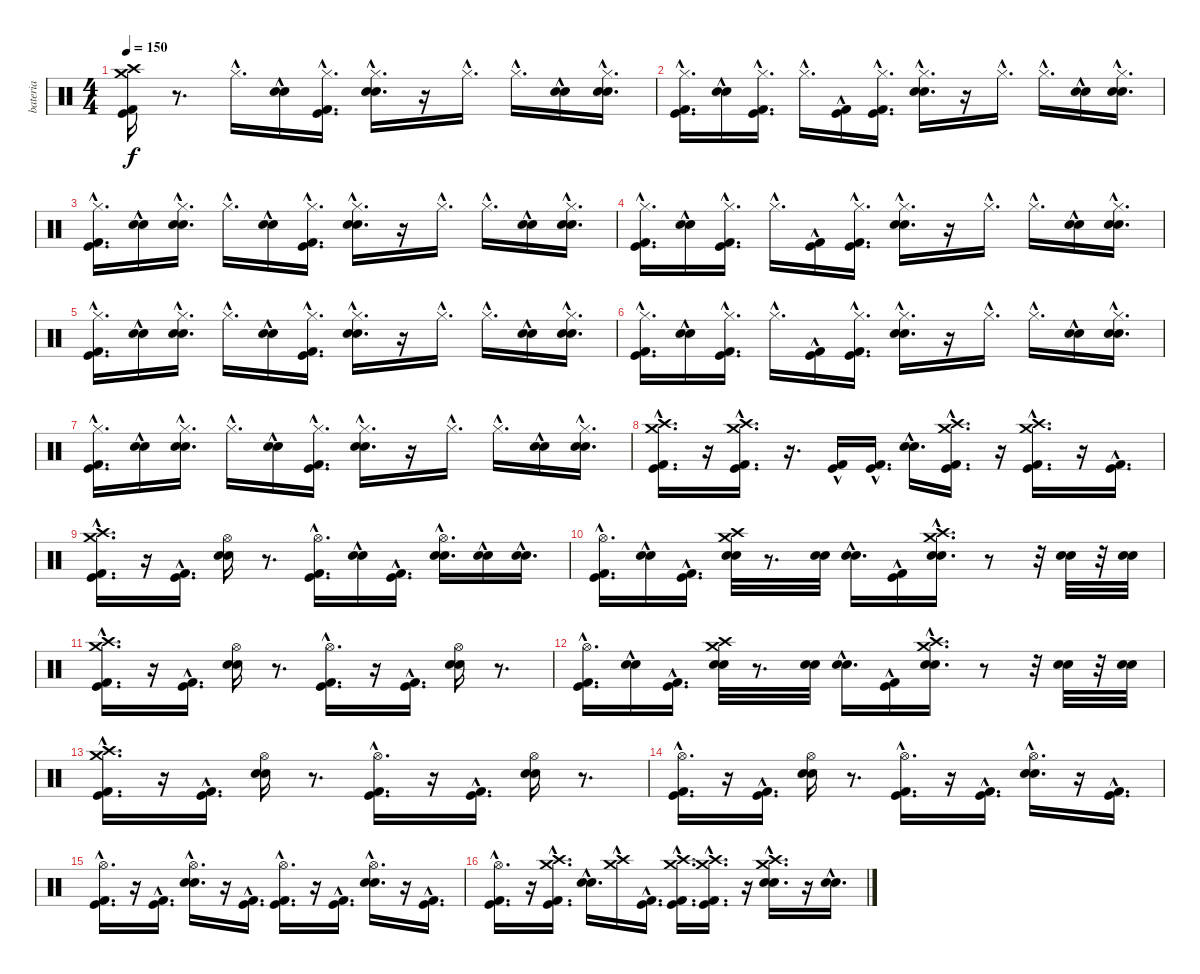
\track ("bateria" "bateria") {instrument percussion}
\staff {score}
\articulation defaults
\ts (4 4)
\tempo 150
\clef neutral
\ks c
("Crash high (hit)" "Crash medium (hit)" "Kick (hit) 2" "Kick (hit)").16{dy f} r.8{d} "Hi-Hat (closed)"{hac}.16{d} ("Electric Snare (hit)"{hac} "Snare (hit) 2"{hac}).16 ("Hi-Hat (closed)"{hac} "Kick (hit) 2"{hac} "Kick (hit)"{hac}).16{d} ("Hi-Hat (closed)"{hac} "Electric Snare (hit)"{hac} "Snare (hit) 2"{hac}).16{d} r.16 "Hi-Hat (closed)"{hac}.16{d} "Hi-Hat (closed)"{hac}.16{d} ("Electric Snare (hit)"{hac} "Snare (hit) 2"{hac}).16 ("Hi-Hat (closed)"{hac} "Electric Snare (hit)"{hac} "Snare (hit) 2"{hac}).16{d} |
("Hi-Hat (closed)"{hac} "Kick (hit) 2"{hac} "Kick (hit)"{hac}).16{d} ("Electric Snare (hit)"{hac} "Snare (hit) 2"{hac}).16 ("Hi-Hat (closed)"{hac} "Kick (hit) 2"{hac} "Kick (hit)"{hac}).16{d} "Hi-Hat (closed)"{hac}.16{d} ("Kick (hit)"{hac} "Kick (hit) 2"{hac}).16 ("Kick (hit) 2"{hac} "Kick (hit)"{hac} "Hi-Hat (closed)"{hac}).16{d} ("Hi-Hat (closed)"{hac} "Electric Snare (hit)"{hac} "Snare (hit) 2"{hac}).16{d} r.16 "Hi-Hat (closed)"{hac}.16{d} "Hi-Hat (closed)"{hac}.16{d} ("Electric Snare (hit)"{hac} "Snare (hit) 2"{hac}).16 ("Hi-Hat (closed)"{hac} "Electric Snare (hit)"{hac} "Snare (hit) 2"{hac}).16{d} |
("Hi-Hat (closed)"{hac} "Kick (hit) 2"{hac} "Kick (hit)"{hac}).16{d} ("Electric Snare (hit)"{hac} "Snare (hit) 2"{hac}).16 ("Hi-Hat (closed)"{hac} "Electric Snare (hit)"{hac} "Snare (hit) 2"{hac}).16{d} "Hi-Hat (closed)"{hac}.16{d} ("Electric Snare (hit)"{hac} "Snare (hit) 2"{hac}).16 ("Kick (hit)"{hac} "Kick (hit) 2"{hac} "Hi-Hat (closed)"{hac}).16{d} ("Electric Snare (hit)"{hac} "Snare (hit) 2"{hac} "Hi-Hat (closed)"{hac}).16{d} r.16 "Hi-Hat (closed)"{hac}.16{d} "Hi-Hat (closed)"{hac}.16{d} ("Electric Snare (hit)"{hac} "Snare (hit) 2"{hac}).16 ("Electric Snare (hit)"{hac} "Snare (hit) 2"{hac} "Hi-Hat (closed)"{hac}).16{d} |
("Kick (hit) 2"{hac} "Kick (hit)"{hac} "Hi-Hat (closed)"{hac}).16{d} ("Electric Snare (hit)"{hac} "Snare (hit) 2"{hac}).16 ("Kick (hit) 2"{hac} "Kick (hit)"{hac} "Hi-Hat (closed)"{hac}).16{d} "Hi-Hat (closed)"{hac}.16{d} ("Kick (hit) 2"{hac} "Kick (hit)"{hac}).16 ("Kick (hit) 2"{hac} "Kick (hit)"{hac} "Hi-Hat (closed)"{hac}).16{d} ("Electric Snare (hit)"{hac} "Snare (hit) 2"{hac} "Hi-Hat (closed)"{hac}).16{d} r.16 "Hi-Hat (closed)"{hac}.16{d} "Hi-Hat (closed)"{hac}.16{d} ("Electric Snare (hit)"{hac} "Snare (hit) 2"{hac}).16 ("Snare (hit) 2"{hac} "Electric Snare (hit)"{hac} "Hi-Hat (closed)"{hac}).16{d} |
("Hi-Hat (closed)"{hac} "Kick (hit) 2"{hac} "Kick (hit)"{hac}).16{d} ("Electric Snare (hit)"{hac} "Snare (hit) 2"{hac}).16 ("Hi-Hat (closed)"{hac} "Electric Snare (hit)"{hac} "Snare (hit) 2"{hac}).16{d} "Hi-Hat (closed)"{hac}.16{d} ("Electric Snare (hit)"{hac} "Snare (hit) 2"{hac}).16 ("Kick (hit)"{hac} "Kick (hit) 2"{hac} "Hi-Hat (closed)"{hac}).16{d} ("Electric Snare (hit)"{hac} "Snare (hit) 2"{hac} "Hi-Hat (closed)"{hac}).16{d} r.16 "Hi-Hat (closed)"{hac}.16{d} "Hi-Hat (closed)"{hac}.16{d} ("Electric Snare (hit)"{hac} "Snare (hit) 2"{hac}).16 ("Electric Snare (hit)"{hac} "Snare (hit) 2"{hac} "Hi-Hat (closed)"{hac}).16{d} |
("Kick (hit) 2"{hac} "Kick (hit)"{hac} "Hi-Hat (closed)"{hac}).16{d} ("Electric Snare (hit)"{hac} "Snare (hit) 2"{hac}).16 ("Kick (hit) 2"{hac} "Kick (hit)"{hac} "Hi-Hat (closed)"{hac}).16{d} "Hi-Hat (closed)"{hac}.16{d} ("Kick (hit) 2"{hac} "Kick (hit)"{hac}).16 ("Kick (hit) 2"{hac} "Kick (hit)"{hac} "Hi-Hat (closed)"{hac}).16{d} ("Electric Snare (hit)"{hac} "Snare (hit) 2"{hac} "Hi-Hat (closed)"{hac}).16{d} r.16 "Hi-Hat (closed)"{hac}.16{d} "Hi-Hat (closed)"{hac}.16{d} ("Electric Snare (hit)"{hac} "Snare (hit) 2"{hac}).16 ("Snare (hit) 2"{hac} "Electric Snare (hit)"{hac} "Hi-Hat (closed)"{hac}).16{d} |
("Hi-Hat (closed)"{hac} "Kick (hit) 2"{hac} "Kick (hit)"{hac}).16{d} ("Electric Snare (hit)"{hac} "Snare (hit) 2"{hac}).16 ("Hi-Hat (closed)"{hac} "Electric Snare (hit)"{hac} "Snare (hit) 2"{hac}).16{d} "Hi-Hat (closed)"{hac}.16{d} ("Electric Snare (hit)"{hac} "Snare (hit) 2"{hac}).16 ("Kick (hit)"{hac} "Kick (hit) 2"{hac} "Hi-Hat (closed)"{hac}).16{d} ("Electric Snare (hit)"{hac} "Snare (hit) 2"{hac} "Hi-Hat (closed)"{hac}).16{d} r.16 "Hi-Hat (closed)"{hac}.16{d} "Hi-Hat (closed)"{hac}.16{d} ("Electric Snare (hit)"{hac} "Snare (hit) 2"{hac}).16 ("Electric Snare (hit)"{hac} "Snare (hit) 2"{hac} "Hi-Hat (closed)"{hac}).16{d} |
("Crash high (hit)"{hac} "Crash medium (hit)"{hac} "Kick (hit) 2"{hac} "Kick (hit)"{hac}).16{d} r.16 ("Crash high (hit)"{hac} "Crash medium (hit)"{hac} "Kick (hit) 2"{hac} "Kick (hit)"{hac}).16{d} r.16{d} ("Kick (hit) 2"{hac} "Kick (hit)"{hac}).16 ("Kick (hit) 2"{hac} "Kick (hit)"{hac}).16{d} ("Electric Snare (hit)"{hac} "Snare (hit) 2"{hac}).16{d} ("Crash high (hit)"{hac} "Crash medium (hit)"{hac} "Kick (hit) 2"{hac} "Kick (hit)"{hac}).16{d} r.16 ("Kick (hit) 2"{hac} "Kick (hit)"{hac} "Crash high (hit)"{hac} "Crash medium (hit)"{hac}).16{d} r.16 ("Kick (hit) 2"{hac} "Kick (hit)"{hac}).16{d} |
("Crash high (hit)"{hac} "Crash medium (hit)"{hac} "Kick (hit) 2"{hac} "Kick (hit)"{hac}).16{d} r.16 ("Kick (hit) 2"{hac} "Kick (hit)"{hac}).16{d} ("Hi-Hat (open)" "Electric Snare (hit)" "Snare (hit) 2").16 r.8{d} ("Kick (hit) 2"{hac} "Kick (hit)"{hac} "Hi-Hat (open)"{hac}).16{d} ("Snare (hit) 2"{hac} "Electric Snare (hit)"{hac}).16 ("Kick (hit) 2"{hac} "Kick (hit)"{hac}).16{d} ("Hi-Hat (open)"{hac} "Electric Snare (hit)"{hac} "Snare (hit) 2"{hac}).16{d} ("Snare (hit) 2"{hac} "Electric Snare (hit)"{hac}).16 ("Snare (hit) 2"{hac} "Electric Snare (hit)"{hac}).16{d} |
("Hi-Hat (open)"{hac} "Kick (hit) 2"{hac} "Kick (hit)"{hac}).16{d} ("Electric Snare (hit)"{hac} "Snare (hit) 2"{hac}).16 ("Kick (hit) 2"{hac} "Kick (hit)"{hac}).16{d} ("Crash high (hit)" "Crash medium (hit)" "Electric Snare (hit)" "Snare (hit) 2").32 r.8{d} ("Electric Snare (hit)" "Snare (hit) 2").32 ("Electric Snare (hit)"{hac} "Snare (hit) 2"{hac}).16{d} ("Kick (hit) 2"{hac} "Kick (hit)"{hac}).16 ("Crash high (hit)"{hac} "Crash medium (hit)"{hac} "Electric Snare (hit)"{hac} "Snare (hit) 2"{hac}).16{d} r.8 r.32 ("Electric Snare (hit)" "Snare (hit) 2").32 r.32 ("Electric Snare (hit)" "Snare (hit) 2").32 |
("Crash high (hit)"{hac} "Crash medium (hit)"{hac} "Kick (hit) 2"{hac} "Kick (hit)"{hac}).16{d} r.16 ("Kick (hit) 2"{hac} "Kick (hit)"{hac}).16{d} ("Hi-Hat (open)" "Electric Snare (hit)" "Snare (hit) 2").16 r.8{d} ("Hi-Hat (open)"{hac} "Kick (hit) 2"{hac} "Kick (hit)"{hac}).16{d} r.16 ("Kick (hit) 2"{hac} "Kick (hit)"{hac}).16{d} ("Hi-Hat (open)" "Electric Snare (hit)" "Snare (hit) 2").16 r.8{d} |
("Hi-Hat (open)"{hac} "Kick (hit) 2"{hac} "Kick (hit)"{hac}).16{d} ("Electric Snare (hit)"{hac} "Snare (hit) 2"{hac}).16 ("Kick (hit) 2"{hac} "Kick (hit)"{hac}).16{d} ("Crash high (hit)" "Crash medium (hit)" "Electric Snare (hit)" "Snare (hit) 2").32 r.8{d} ("Electric Snare (hit)" "Snare (hit) 2").32 ("Electric Snare (hit)"{hac} "Snare (hit) 2"{hac}).16{d} ("Kick (hit) 2"{hac} "Kick (hit)"{hac}).16 ("Crash high (hit)"{hac} "Crash medium (hit)"{hac} "Electric Snare (hit)"{hac} "Snare (hit) 2"{hac}).16{d} r.8 r.32 ("Electric Snare (hit)" "Snare (hit) 2").32 r.32 ("Electric Snare (hit)" "Snare (hit) 2").32 |
("Crash high (hit)"{hac} "Crash medium (hit)"{hac} "Kick (hit) 2"{hac} "Kick (hit)"{hac}).16{d} r.16 ("Kick (hit) 2"{hac} "Kick (hit)"{hac}).16{d} ("Hi-Hat (open)" "Electric Snare (hit)" "Snare (hit) 2").16 r.8{d} ("Hi-Hat (open)"{hac} "Kick (hit) 2"{hac} "Kick (hit)"{hac}).16{d} r.16 ("Kick (hit) 2"{hac} "Kick (hit)"{hac}).16{d} ("Hi-Hat (open)" "Electric Snare (hit)" "Snare (hit) 2").16 r.8{d} |
("Hi-Hat (open)"{hac} "Kick (hit) 2"{hac} "Kick (hit)"{hac}).16{d} r.16 ("Kick (hit) 2"{hac} "Kick (hit)"{hac}).16{d} ("Hi-Hat (open)" "Electric Snare (hit)" "Snare (hit) 2").16 r.8{d} ("Hi-Hat (open)"{hac} "Kick (hit) 2"{hac} "Kick (hit)"{hac}).16{d} r.16 ("Kick (hit) 2"{hac} "Kick (hit)"{hac}).16{d} ("Hi-Hat (open)"{hac} "Electric Snare (hit)"{hac} "Snare (hit) 2"{hac}).16{d} r.16 ("Kick (hit) 2"{hac} "Kick (hit)"{hac}).16{d} |
("Hi-Hat (open)"{hac} "Kick (hit) 2"{hac} "Kick (hit)"{hac}).16{d} r.16 ("Kick (hit) 2"{hac} "Kick (hit)"{hac}).16{d} ("Hi-Hat (open)"{hac} "Electric Snare (hit)"{hac} "Snare (hit) 2"{hac}).16{d} r.16 ("Kick (hit) 2"{hac} "Kick (hit)"{hac}).16{d} ("Hi-Hat (open)"{hac} "Kick (hit) 2"{hac} "Kick (hit)"{hac}).16{d} r.16 ("Kick (hit) 2"{hac} "Kick (hit)"{hac}).16{d} ("Hi-Hat (open)"{hac} "Electric Snare (hit)"{hac} "Snare (hit) 2"{hac}).16{d} r.16 ("Kick (hit) 2"{hac} "Kick (hit)"{hac}).16{d} |
("Hi-Hat (open)"{hac} "Kick (hit) 2"{hac} "Kick (hit)"{hac}).16{d} r.16 ("Crash high (hit)"{hac} "Crash medium (hit)"{hac} "Kick (hit) 2"{hac} "Kick (hit)"{hac}).16{d} ("Electric Snare (hit)"{hac} "Snare (hit) 2"{hac}).16{d} ("Crash high (hit)"{hac} "Crash medium (hit)"{hac}).16 ("Kick (hit) 2"{hac} "Kick (hit)"{hac}).16{d} ("Crash high (hit)"{hac} "Crash medium (hit)"{hac} "Kick (hit) 2"{hac} "Kick (hit)"{hac}).16{d} ("Crash high (hit)"{hac} "Crash medium (hit)"{hac} "Kick (hit) 2"{hac} "Kick (hit)"{hac}).16{d} r.16 ("Crash high (hit)"{hac} "Crash medium (hit)"{hac} "Electric Snare (hit)"{hac} "Snare (hit) 2"{hac}).16{d} r.16 ("Electric Snare (hit)"{hac} "Snare (hit) 2"{hac}).16{d}
